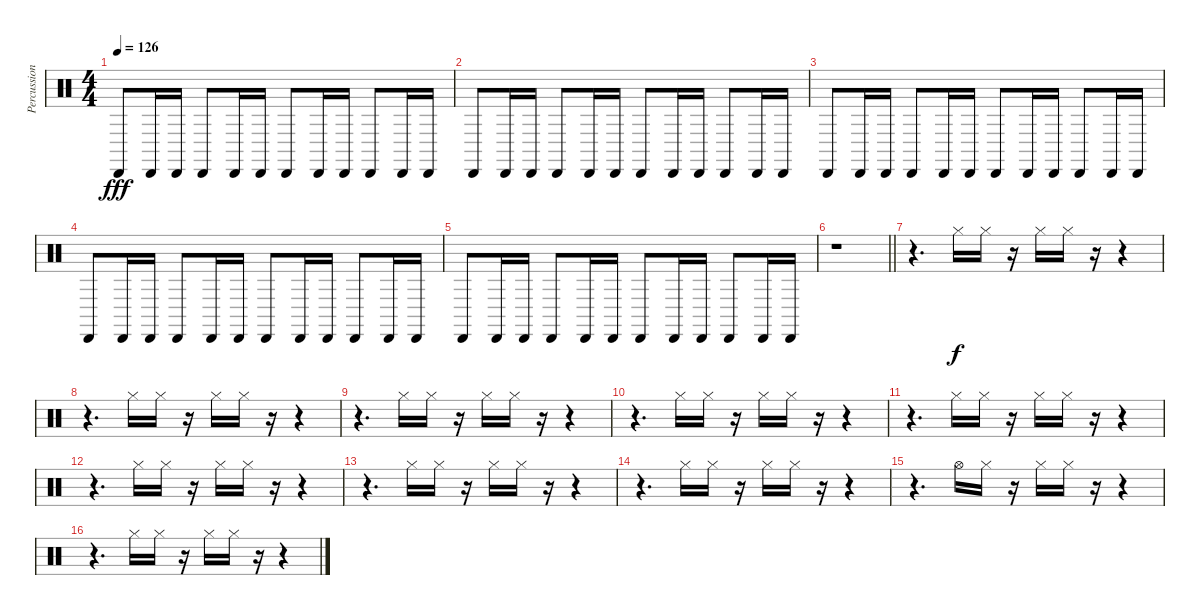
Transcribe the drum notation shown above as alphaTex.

\track ("Percussions" "Percussion") {instrument percussion}
\staff {score}
\articulation defaults
\ts (4 4)
\tempo 126
\clef neutral
\ks c "Cabasa (hit)".8{dy fff} "Cabasa (hit)".16 "Cabasa (hit)".16 "Cabasa (hit)".8 "Cabasa (hit)".16 "Cabasa (hit)".16 "Cabasa (hit)".8 "Cabasa (hit)".16 "Cabasa (hit)".16 "Cabasa (hit)".8 "Cabasa (hit)".16 "Cabasa (hit)".16
|
"Cabasa (hit)".8 "Cabasa (hit)".16 "Cabasa (hit)".16 "Cabasa (hit)".8 "Cabasa (hit)".16 "Cabasa (hit)".16 "Cabasa (hit)".8 "Cabasa (hit)".16 "Cabasa (hit)".16 "Cabasa (hit)".8 "Cabasa (hit)".16 "Cabasa (hit)".16 |
"Cabasa (hit)".8 "Cabasa (hit)".16 "Cabasa (hit)".16 "Cabasa (hit)".8 "Cabasa (hit)".16 "Cabasa (hit)".16 "Cabasa (hit)".8 "Cabasa (hit)".16 "Cabasa (hit)".16 "Cabasa (hit)".8 "Cabasa (hit)".16 "Cabasa (hit)".16 |
"Cabasa (hit)".8 "Cabasa (hit)".16 "Cabasa (hit)".16 "Cabasa (hit)".8 "Cabasa (hit)".16 "Cabasa (hit)".16 "Cabasa (hit)".8 "Cabasa (hit)".16 "Cabasa (hit)".16 "Cabasa (hit)".8 "Cabasa (hit)".16 "Cabasa (hit)".16 |
"Cabasa (hit)".8 "Cabasa (hit)".16 "Cabasa (hit)".16 "Cabasa (hit)".8 "Cabasa (hit)".16 "Cabasa (hit)".16 "Cabasa (hit)".8 "Cabasa (hit)".16 "Cabasa (hit)".16 "Cabasa (hit)".8 "Cabasa (hit)".16 "Cabasa (hit)".16 |
\barLineRight lightlight
r.1 |
r.4{d} "Hi-Hat (closed)".16{dy f} "Hi-Hat (closed)".16 r.16 "Hi-Hat (closed)".16 "Hi-Hat (closed)".16 r.16 r.4 |
r.4{d} "Hi-Hat (closed)".16 "Hi-Hat (closed)".16 r.16 "Hi-Hat (closed)".16 "Hi-Hat (closed)".16 r.16 r.4 |
r.4{d} "Hi-Hat (closed)".16 "Hi-Hat (closed)".16 r.16 "Hi-Hat (closed)".16 "Hi-Hat (closed)".16 r.16 r.4 |
r.4{d} "Hi-Hat (closed)".16 "Hi-Hat (closed)".16 r.16 "Hi-Hat (closed)".16 "Hi-Hat (closed)".16 r.16 r.4 |
r.4{d} "Hi-Hat (closed)".16 "Hi-Hat (closed)".16 r.16 "Hi-Hat (closed)".16 "Hi-Hat (closed)".16 r.16 r.4 |
r.4{d} "Hi-Hat (closed)".16 "Hi-Hat (closed)".16 r.16 "Hi-Hat (closed)".16 "Hi-Hat (closed)".16 r.16 r.4 |
r.4{d} "Hi-Hat (closed)".16 "Hi-Hat (closed)".16 r.16 "Hi-Hat (closed)".16 "Hi-Hat (closed)".16 r.16 r.4 |
r.4{d} "Hi-Hat (closed)".16 "Hi-Hat (closed)".16 r.16 "Hi-Hat (closed)".16 "Hi-Hat (closed)".16 r.16 r.4 |
r.4{d} "Hi-Hat (open)".16 "Hi-Hat (closed)".16 r.16 "Hi-Hat (closed)".16 "Hi-Hat (closed)".16 r.16 r.4 |
r.4{d} "Hi-Hat (closed)".16 "Hi-Hat (closed)".16 r.16 "Hi-Hat (closed)".16 "Hi-Hat (closed)".16 r.16 r.4
